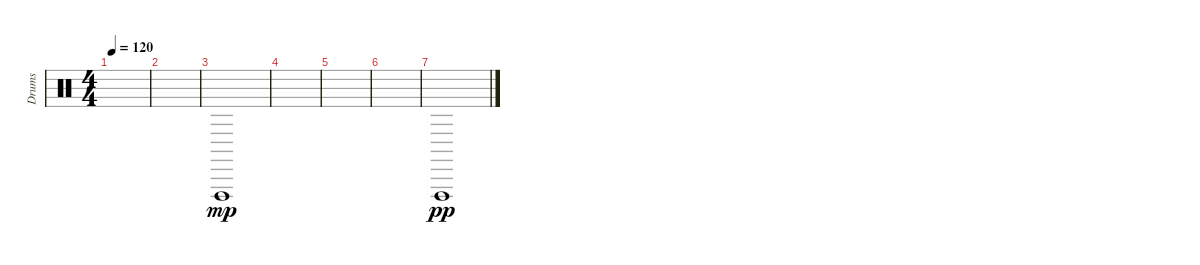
\track ("Drums" "Drums") {instrument percussion}
\staff {score}
\articulation defaults
\ts (4 4)
\tempo 120
\clef neutral
\ks c
|
|
"Vibraslap (hit)".1{dy mp} |
|
|
|
"Vibraslap (hit)".1{dy pp}
